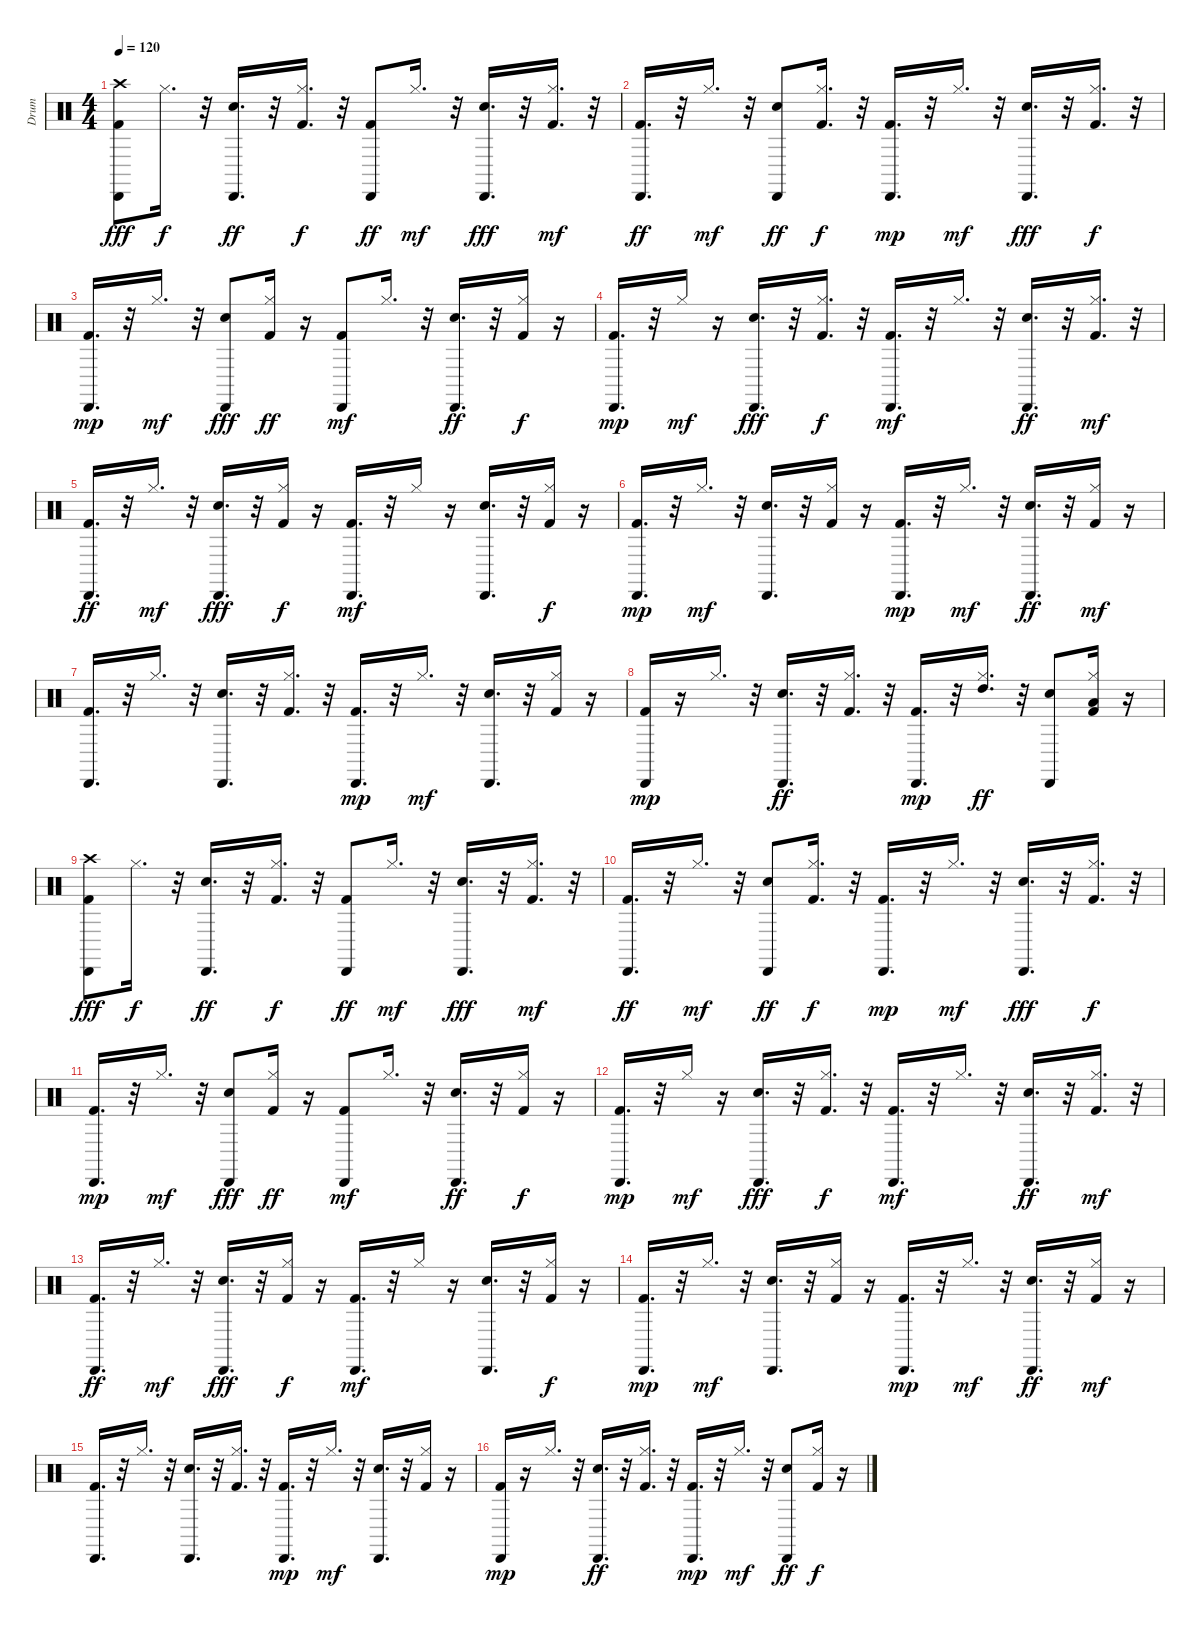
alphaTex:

\track ("Drum" "Drum") {instrument percussion}
\staff {score}
\articulation defaults
\ts (4 4)
\tempo 120
\clef neutral
\ks c
("Kick (hit) 2" "Cabasa (hit)" "Crash high (hit)").8{dy fff} "Hi-Hat (closed)".16{d dy f} r.32 ("Snare (hit) 2" "Cabasa (hit)").16{d dy ff} r.32 ("Hi-Hat (closed)" "Kick (hit) 2").16{d dy f} r.32 ("Cabasa (hit)" "Kick (hit) 2").8{dy ff} "Hi-Hat (closed)".16{d dy mf} r.32 ("Cabasa (hit)" "Snare (hit) 2").16{d dy fff} r.32 ("Hi-Hat (closed)" "Kick (hit) 2").16{d dy mf} r.32 |
("Cabasa (hit)" "Kick (hit) 2").16{d dy ff} r.32 "Hi-Hat (closed)".16{d dy mf} r.32 ("Snare (hit) 2" "Cabasa (hit)").8{dy ff} ("Kick (hit) 2" "Hi-Hat (closed)").16{d dy f} r.32 ("Kick (hit) 2" "Cabasa (hit)").16{d dy mp} r.32 "Hi-Hat (closed)".16{d dy mf} r.32 ("Snare (hit) 2" "Cabasa (hit)").16{d dy fff} r.32 ("Hi-Hat (closed)" "Kick (hit) 2").16{d dy f} r.32 |
("Kick (hit) 2" "Cabasa (hit)").16{d dy mp} r.32 "Hi-Hat (closed)".16{d dy mf} r.32 ("Snare (hit) 2" "Cabasa (hit)").8{dy fff} ("Kick (hit) 2" "Hi-Hat (closed)").16{dy ff} r.16 ("Kick (hit) 2" "Cabasa (hit)").8{dy mf} "Hi-Hat (closed)".16{d} r.32 ("Snare (hit) 2" "Cabasa (hit)").16{d dy ff} r.32 ("Kick (hit) 2" "Hi-Hat (closed)").16{dy f} r.16 |
("Cabasa (hit)" "Kick (hit) 2").16{d dy mp} r.32 "Hi-Hat (closed)".16{dy mf} r.16 ("Snare (hit) 2" "Cabasa (hit)").16{d dy fff} r.32 ("Hi-Hat (closed)" "Kick (hit) 2").16{d dy f} r.32 ("Kick (hit) 2" "Cabasa (hit)").16{d dy mf} r.32 "Hi-Hat (closed)".16{d} r.32 ("Cabasa (hit)" "Snare (hit) 2").16{d dy ff} r.32 ("Kick (hit) 2" "Hi-Hat (closed)").16{d dy mf} r.32 |
("Cabasa (hit)" "Kick (hit) 2").16{d dy ff} r.32 "Hi-Hat (closed)".16{d dy mf} r.32 ("Snare (hit) 2" "Cabasa (hit)").16{d dy fff} r.32 ("Kick (hit) 2" "Hi-Hat (closed)").16{dy f} r.16 ("Kick (hit) 2" "Cabasa (hit)").16{d dy mf} r.32 "Hi-Hat (closed)".16 r.16 ("Snare (hit) 2" "Cabasa (hit)").16{d} r.32 ("Kick (hit) 2" "Hi-Hat (closed)").16{dy f} r.16 |
("Kick (hit) 2" "Cabasa (hit)").16{d dy mp} r.32 "Hi-Hat (closed)".16{d dy mf} r.32 ("Snare (hit) 2" "Cabasa (hit)").16{d} r.32 ("Hi-Hat (closed)" "Kick (hit) 2").16 r.16 ("Kick (hit) 2" "Cabasa (hit)").16{d dy mp} r.32 "Hi-Hat (closed)".16{d dy mf} r.32 ("Snare (hit) 2" "Cabasa (hit)").16{d dy ff} r.32 ("Kick (hit) 2" "Hi-Hat (closed)").16{dy mf} r.16 |
("Kick (hit) 2" "Cabasa (hit)").16{d} r.32 "Hi-Hat (closed)".16{d} r.32 ("Snare (hit) 2" "Cabasa (hit)").16{d} r.32 ("Kick (hit) 2" "Hi-Hat (closed)").16{d} r.32 ("Kick (hit) 2" "Cabasa (hit)").16{d dy mp} r.32 "Hi-Hat (closed)".16{d dy mf} r.32 ("Snare (hit) 2" "Cabasa (hit)").16{d} r.32 ("Kick (hit) 2" "Hi-Hat (closed)").16 r.16 |
("Kick (hit) 2" "Cabasa (hit)").16{dy mp} r.16 "Hi-Hat (closed)".16{d} r.32 ("Snare (hit) 2" "Cabasa (hit)").16{d dy ff} r.32 ("Hi-Hat (closed)" "Kick (hit) 2").16{d} r.32 ("Kick (hit) 2" "Cabasa (hit)").16{d dy mp} r.32 ("Hi-Hat (closed)" "High Tom (hit)").16{d dy ff} r.32 ("Cabasa (hit)" "Snare (hit) 2").8 ("Hi-Hat (closed)" "Kick (hit) 2" "Low Tom (hit)").16 r.16 |
("Kick (hit) 2" "Cabasa (hit)" "Crash high (hit)").8{dy fff} "Hi-Hat (closed)".16{d dy f} r.32 ("Snare (hit) 2" "Cabasa (hit)").16{d dy ff} r.32 ("Hi-Hat (closed)" "Kick (hit) 2").16{d dy f} r.32 ("Cabasa (hit)" "Kick (hit) 2").8{dy ff} "Hi-Hat (closed)".16{d dy mf} r.32 ("Cabasa (hit)" "Snare (hit) 2").16{d dy fff} r.32 ("Hi-Hat (closed)" "Kick (hit) 2").16{d dy mf} r.32 |
("Cabasa (hit)" "Kick (hit) 2").16{d dy ff} r.32 "Hi-Hat (closed)".16{d dy mf} r.32 ("Snare (hit) 2" "Cabasa (hit)").8{dy ff} ("Kick (hit) 2" "Hi-Hat (closed)").16{d dy f} r.32 ("Kick (hit) 2" "Cabasa (hit)").16{d dy mp} r.32 "Hi-Hat (closed)".16{d dy mf} r.32 ("Snare (hit) 2" "Cabasa (hit)").16{d dy fff} r.32 ("Hi-Hat (closed)" "Kick (hit) 2").16{d dy f} r.32 |
("Kick (hit) 2" "Cabasa (hit)").16{d dy mp} r.32 "Hi-Hat (closed)".16{d dy mf} r.32 ("Snare (hit) 2" "Cabasa (hit)").8{dy fff} ("Kick (hit) 2" "Hi-Hat (closed)").16{dy ff} r.16 ("Kick (hit) 2" "Cabasa (hit)").8{dy mf} "Hi-Hat (closed)".16{d} r.32 ("Snare (hit) 2" "Cabasa (hit)").16{d dy ff} r.32 ("Kick (hit) 2" "Hi-Hat (closed)").16{dy f} r.16 |
("Cabasa (hit)" "Kick (hit) 2").16{d dy mp} r.32 "Hi-Hat (closed)".16{dy mf} r.16 ("Snare (hit) 2" "Cabasa (hit)").16{d dy fff} r.32 ("Hi-Hat (closed)" "Kick (hit) 2").16{d dy f} r.32 ("Kick (hit) 2" "Cabasa (hit)").16{d dy mf} r.32 "Hi-Hat (closed)".16{d} r.32 ("Cabasa (hit)" "Snare (hit) 2").16{d dy ff} r.32 ("Kick (hit) 2" "Hi-Hat (closed)").16{d dy mf} r.32 |
("Cabasa (hit)" "Kick (hit) 2").16{d dy ff} r.32 "Hi-Hat (closed)".16{d dy mf} r.32 ("Snare (hit) 2" "Cabasa (hit)").16{d dy fff} r.32 ("Kick (hit) 2" "Hi-Hat (closed)").16{dy f} r.16 ("Kick (hit) 2" "Cabasa (hit)").16{d dy mf} r.32 "Hi-Hat (closed)".16 r.16 ("Snare (hit) 2" "Cabasa (hit)").16{d} r.32 ("Kick (hit) 2" "Hi-Hat (closed)").16{dy f} r.16 |
("Kick (hit) 2" "Cabasa (hit)").16{d dy mp} r.32 "Hi-Hat (closed)".16{d dy mf} r.32 ("Snare (hit) 2" "Cabasa (hit)").16{d} r.32 ("Hi-Hat (closed)" "Kick (hit) 2").16 r.16 ("Kick (hit) 2" "Cabasa (hit)").16{d dy mp} r.32 "Hi-Hat (closed)".16{d dy mf} r.32 ("Snare (hit) 2" "Cabasa (hit)").16{d dy ff} r.32 ("Kick (hit) 2" "Hi-Hat (closed)").16{dy mf} r.16 |
("Kick (hit) 2" "Cabasa (hit)").16{d} r.32 "Hi-Hat (closed)".16{d} r.32 ("Snare (hit) 2" "Cabasa (hit)").16{d} r.32 ("Kick (hit) 2" "Hi-Hat (closed)").16{d} r.32 ("Kick (hit) 2" "Cabasa (hit)").16{d dy mp} r.32 "Hi-Hat (closed)".16{d dy mf} r.32 ("Snare (hit) 2" "Cabasa (hit)").16{d} r.32 ("Kick (hit) 2" "Hi-Hat (closed)").16 r.16 |
("Kick (hit) 2" "Cabasa (hit)").16{dy mp} r.16 "Hi-Hat (closed)".16{d} r.32 ("Snare (hit) 2" "Cabasa (hit)").16{d dy ff} r.32 ("Hi-Hat (closed)" "Kick (hit) 2").16{d} r.32 ("Kick (hit) 2" "Cabasa (hit)").16{d dy mp} r.32 "Hi-Hat (closed)".16{d dy mf} r.32 ("Cabasa (hit)" "Snare (hit) 2").8{dy ff} ("Kick (hit) 2" "Hi-Hat (closed)").16{dy f} r.16
